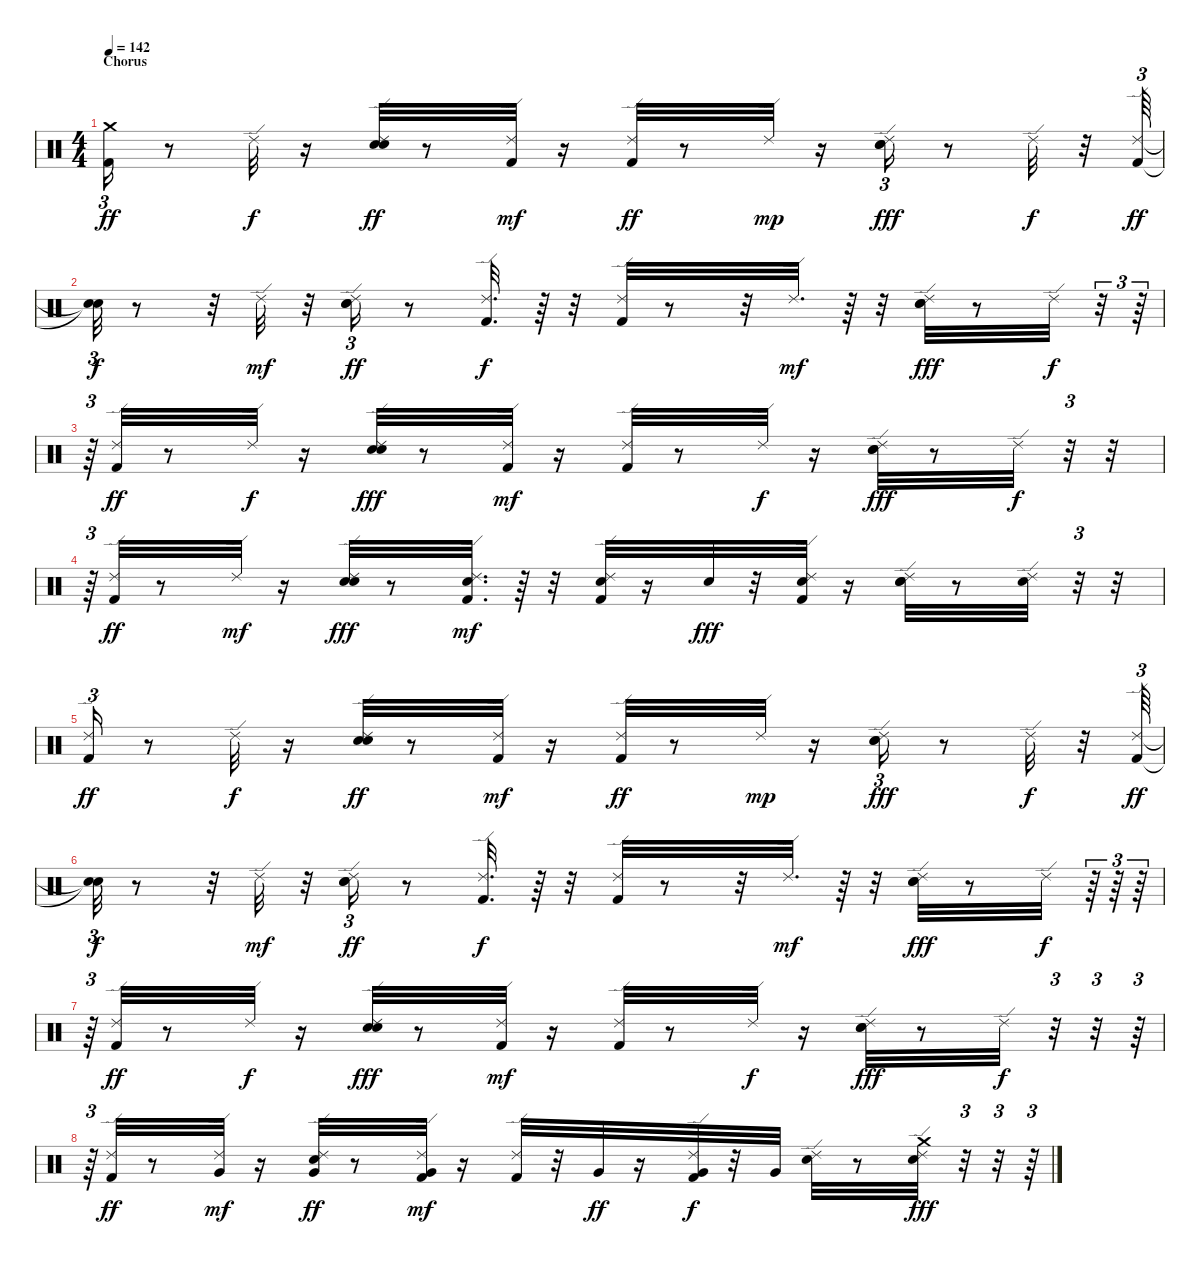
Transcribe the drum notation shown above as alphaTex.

\track "" {instrument percussion}
\staff {score}
\articulation defaults
\ts (4 4)
\section ("" "Chorus")
\tempo 142
\clef neutral
\ks c
("Crash medium (hit)" "Kick (hit) 2").16{tu (3 2) dy ff} r.8 "Ride (edge) 2".32{dy f} r.16 ("Hand Clap (hit)" "Electric Snare (hit)" "Ride (edge) 2").32{dy ff} r.8 ("Kick (hit) 2" "Ride (edge) 2").32{dy mf} r.16 ("Kick (hit) 2" "Ride (edge) 2").32{dy ff} r.8 "Ride (edge) 2".32{dy mp} r.16 ("Hand Clap (hit)" "Electric Snare (hit)" "Ride (edge) 2").16{tu (3 2) dy fff} r.8 "Ride (edge) 2".32{dy f} r.32 ("Kick (hit) 2" "Ride (edge) 2").64{tu (3 2) dy ff} |
("Snare (hit)"{t} "Snare (hit)"{t}).32{tu (3 2) dy f} r.8 r.32 "Ride (edge) 2".32{dy mf} r.32 ("Hand Clap (hit)" "Electric Snare (hit)" "Ride (edge) 2").16{tu (3 2) dy ff} r.8 ("Kick (hit) 2" "Ride (edge) 2").32{d dy f} r.64 r.32 ("Kick (hit) 2" "Ride (edge) 2").32 r.8 r.32 "Ride (edge) 2".32{d dy mf} r.64 r.32 ("Hand Clap (hit)" "Electric Snare (hit)" "Ride (edge) 2").32{dy fff} r.8 "Ride (edge) 2".32{dy f} r.32{tu (3 2)} r.64{tu (3 2)} |
r.64{tu (3 2)} ("Ride (edge) 2" "Kick (hit) 2").32{dy ff} r.8 "Ride (edge) 2".32{dy f} r.16 ("Electric Snare (hit)" "Hand Clap (hit)" "Ride (edge) 2").32{dy fff} r.8 ("Kick (hit) 2" "Ride (edge) 2").32{dy mf} r.16 ("Kick (hit) 2" "Ride (edge) 2").32 r.8 "Ride (edge) 2".32{dy f} r.16 ("Electric Snare (hit)" "Hand Clap (hit)" "Ride (edge) 2").32{dy fff} r.8 "Ride (edge) 2".32{dy f} r.32{tu (3 2)} r.32 |
r.64{tu (3 2)} ("Kick (hit) 2" "Ride (edge) 2").32{dy ff} r.8 "Ride (edge) 2".32{dy mf} r.16 ("Hand Clap (hit)" "Electric Snare (hit)" "Ride (edge) 2").32{dy fff} r.8 ("Kick (hit) 2" "Electric Snare (hit)" "Ride (edge) 2").32{d dy mf} r.64 r.32 ("Kick (hit) 2" "Electric Snare (hit)" "Ride (edge) 2").32 r.16 "Electric Snare (hit)".32{dy fff} r.32 ("Electric Snare (hit)" "Ride (edge) 2" "Kick (hit) 2").32 r.16 ("Electric Snare (hit)" "Hand Clap (hit)" "Ride (edge) 2").32 r.8 ("Electric Snare (hit)" "Ride (edge) 2").32 r.32{tu (3 2)} r.32 |
("Ride (edge) 2" "Kick (hit) 2").16{tu (3 2) dy ff} r.8 "Ride (edge) 2".32{dy f} r.16 ("Hand Clap (hit)" "Electric Snare (hit)" "Ride (edge) 2").32{dy ff} r.8 ("Kick (hit) 2" "Ride (edge) 2").32{dy mf} r.16 ("Kick (hit) 2" "Ride (edge) 2").32{dy ff} r.8 "Ride (edge) 2".32{dy mp} r.16 ("Hand Clap (hit)" "Electric Snare (hit)" "Ride (edge) 2").16{tu (3 2) dy fff} r.8 "Ride (edge) 2".32{dy f} r.32 ("Kick (hit) 2" "Ride (edge) 2").64{tu (3 2) dy ff} |
("Snare (hit)"{t} "Snare (hit)"{t}).32{tu (3 2) dy f} r.8 r.32 "Ride (edge) 2".32{dy mf} r.32 ("Hand Clap (hit)" "Electric Snare (hit)" "Ride (edge) 2").16{tu (3 2) dy ff} r.8 ("Kick (hit) 2" "Ride (edge) 2").32{d dy f} r.64 r.32 ("Kick (hit) 2" "Ride (edge) 2").32 r.8 r.32 "Ride (edge) 2".32{d dy mf} r.64 r.32 ("Hand Clap (hit)" "Electric Snare (hit)" "Ride (edge) 2").32{dy fff} r.8 "Ride (edge) 2".32{dy f} r.64{tu (3 2)} r.64{tu (3 2)} r.64{tu (3 2)} |
r.64{tu (3 2)} ("Ride (edge) 2" "Kick (hit) 2").32{dy ff} r.8 "Ride (edge) 2".32{dy f} r.16 ("Electric Snare (hit)" "Hand Clap (hit)" "Ride (edge) 2").32{dy fff} r.8 ("Kick (hit) 2" "Ride (edge) 2").32{dy mf} r.16 ("Kick (hit) 2" "Ride (edge) 2").32 r.8 "Ride (edge) 2".32{dy f} r.16 ("Electric Snare (hit)" "Hand Clap (hit)" "Ride (edge) 2").32{dy fff} r.8 "Ride (edge) 2".32{dy f} r.32{tu (3 2)} r.32{tu (3 2)} r.64{tu (3 2)} |
r.64{tu (3 2)} ("Kick (hit) 2" "Ride (edge) 2").32{dy ff} r.8 ("Ride (edge) 2" "Very Low Tom (hit)").32{dy mf} r.16 ("Hand Clap (hit)" "Ride (edge) 2" "Very Low Tom (hit)").32{dy ff} r.8 ("Very Low Tom (hit)" "Kick (hit) 2" "Ride (edge) 2").32{dy mf} r.16 ("Kick (hit) 2" "Ride (edge) 2").32 r.32 "Very Low Tom (hit)".32{dy ff} r.16 ("Ride (edge) 2" "Very Low Tom (hit)" "Kick (hit) 2").32{dy f} r.32 "Very Low Tom (hit)".32 ("Hand Clap (hit)" "Ride (edge) 2").32 r.8 ("Crash medium (hit)" "Electric Snare (hit)" "Ride (edge) 2").32{dy fff} r.32{tu (3 2)} r.32{tu (3 2)} r.64{tu (3 2)}
